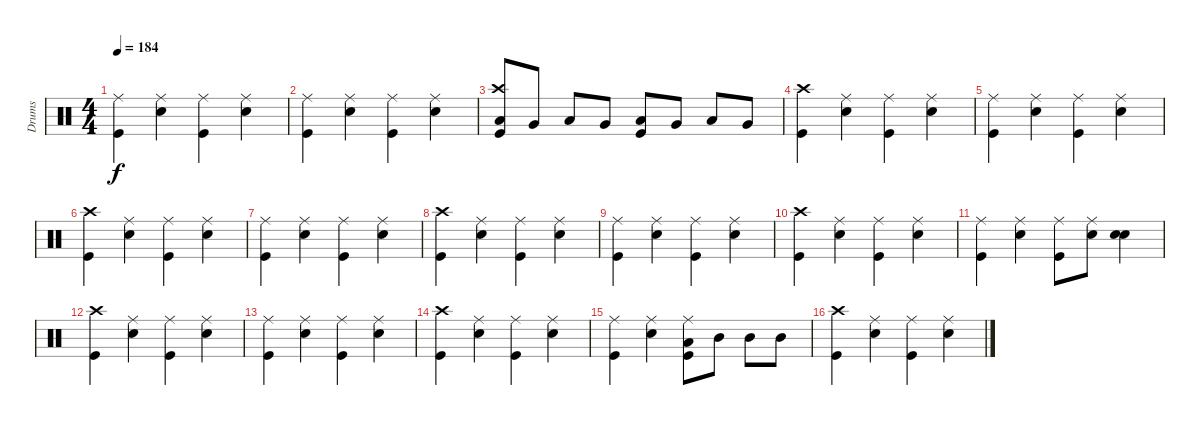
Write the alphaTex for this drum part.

\track ("Drums" "Drums") {instrument percussion}
\staff {score}
\articulation defaults
\ts (4 4)
\tempo 184
\clef neutral
\ks c
("Ride (middle)" "Kick (hit)").4{dy f} ("Ride (middle)" "Electric Snare (hit)").4 ("Ride (middle)" "Kick (hit)").4 ("Ride (middle)" "Electric Snare (hit)").4 |
("Ride (middle)" "Kick (hit)").4 ("Ride (middle)" "Electric Snare (hit)").4 ("Ride (middle)" "Kick (hit)").4 ("Ride (middle)" "Electric Snare (hit)").4 |
("Crash high (hit)" "Low Tom (hit)" "Kick (hit)").8 "Very Low Tom (hit)".8 "Low Tom (hit)".8 "Very Low Tom (hit)".8 ("Low Tom (hit)" "Kick (hit)").8 "Very Low Tom (hit)".8 "Low Tom (hit)".8 "Very Low Tom (hit)".8 |
("Crash high (hit)" "Kick (hit)").4 ("Ride (middle)" "Electric Snare (hit)").4 ("Ride (middle)" "Kick (hit)").4 ("Ride (middle)" "Electric Snare (hit)").4 |
("Ride (middle)" "Kick (hit)").4 ("Ride (middle)" "Electric Snare (hit)").4 ("Ride (middle)" "Kick (hit)").4 ("Ride (middle)" "Electric Snare (hit)").4 |
("Crash high (hit)" "Kick (hit)").4 ("Ride (middle)" "Electric Snare (hit)").4 ("Ride (middle)" "Kick (hit)").4 ("Ride (middle)" "Electric Snare (hit)").4 |
("Ride (middle)" "Kick (hit)").4 ("Ride (middle)" "Electric Snare (hit)").4 ("Ride (middle)" "Kick (hit)").4 ("Ride (middle)" "Electric Snare (hit)").4 |
("Crash high (hit)" "Kick (hit)").4 ("Ride (middle)" "Electric Snare (hit)").4 ("Ride (middle)" "Kick (hit)").4 ("Ride (middle)" "Electric Snare (hit)").4 |
("Ride (middle)" "Kick (hit)").4 ("Ride (middle)" "Electric Snare (hit)").4 ("Ride (middle)" "Kick (hit)").4 ("Ride (middle)" "Electric Snare (hit)").4 |
("Crash high (hit)" "Kick (hit)").4 ("Ride (middle)" "Electric Snare (hit)").4 ("Ride (middle)" "Kick (hit)").4 ("Ride (middle)" "Electric Snare (hit)").4 |
("Ride (middle)" "Kick (hit)").4 ("Ride (middle)" "Electric Snare (hit)").4 ("Ride (middle)" "Kick (hit)").8 ("Ride (middle)" "Electric Snare (hit)").8 ("Electric Snare (hit)" "Electric Snare (hit)").4 |
("Crash high (hit)" "Kick (hit)").4 ("Ride (middle)" "Electric Snare (hit)").4 ("Ride (middle)" "Kick (hit)").4 ("Ride (middle)" "Electric Snare (hit)").4 |
("Ride (middle)" "Kick (hit)").4 ("Ride (middle)" "Electric Snare (hit)").4 ("Ride (middle)" "Kick (hit)").4 ("Ride (middle)" "Electric Snare (hit)").4 |
("Crash high (hit)" "Kick (hit)").4 ("Ride (middle)" "Electric Snare (hit)").4 ("Ride (middle)" "Kick (hit)").4 ("Ride (middle)" "Electric Snare (hit)").4 |
("Ride (middle)" "Kick (hit)").4 ("Ride (middle)" "Electric Snare (hit)").4 ("Ride (middle)" "Low Tom (hit)" "Kick (hit)").8 "Mid Tom (hit)".8 "Mid Tom (hit)".8 "Mid Tom (hit)".8 |
("Crash high (hit)" "Kick (hit)").4 ("Ride (middle)" "Snare (hit) 2").4 ("Ride (middle)" "Kick (hit)").4 ("Ride (middle)" "Snare (hit) 2").4
